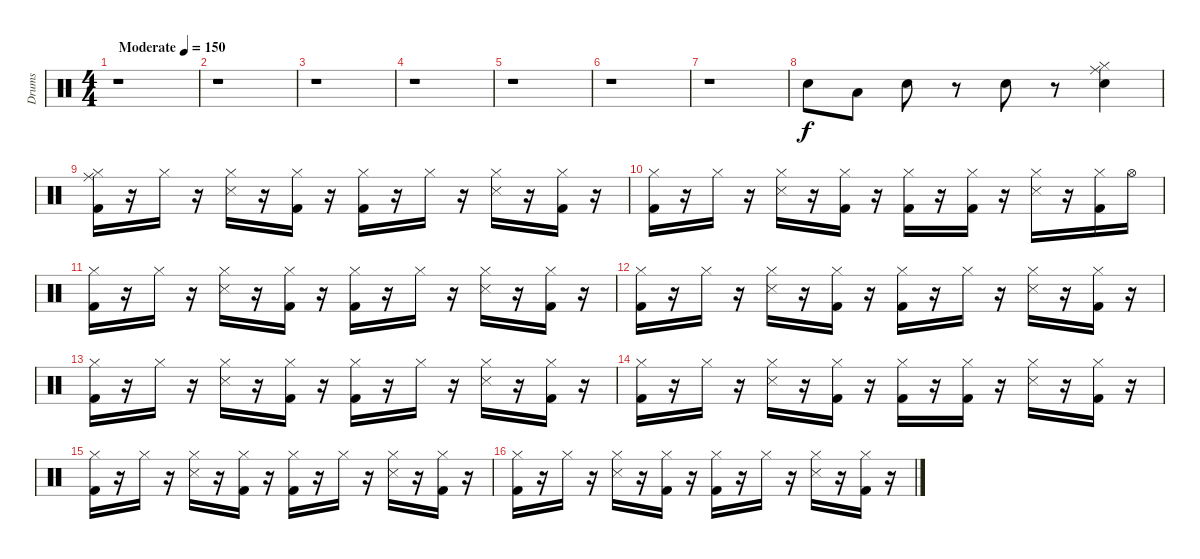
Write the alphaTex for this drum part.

\track ("Drums" "Drums") {instrument percussion}
\staff {score}
\articulation defaults
\ts (4 4)
\tempo (150 "Moderate")
\clef neutral
\ks c
r.1{dy f} |
r.1 |
r.1 |
r.1 |
r.1 |
r.1 |
r.1 |
"Snare (hit) 2".8 "Low Floor Tom (hit)".8 "Snare (hit) 2".8 r.8 "Snare (hit) 2".8 r.8 ("Electric Snare (hit)" "Hi-Hat (closed)" "Ride (middle)").4 |
("Ride (middle)" "Kick (hit) 2" "Hi-Hat (closed)").16 r.16 "Hi-Hat (closed)".16 r.16 ("Hi-Hat (closed)" "Snare (side stick) 3").16 r.16 ("Kick (hit) 2" "Hi-Hat (closed)").16 r.16 ("Kick (hit) 2" "Hi-Hat (closed)").16 r.16 "Hi-Hat (closed)".16 r.16 ("Hi-Hat (closed)" "Snare (side stick) 3").16 r.16 ("Kick (hit) 2" "Hi-Hat (closed)").16 r.16 |
("Kick (hit) 2" "Hi-Hat (closed)").16 r.16 "Hi-Hat (closed)".16 r.16 ("Hi-Hat (closed)" "Snare (side stick) 3").16 r.16 ("Kick (hit) 2" "Hi-Hat (closed)").16 r.16 ("Kick (hit) 2" "Hi-Hat (closed)").16 r.16 ("Kick (hit) 2" "Hi-Hat (closed)").16 r.16 ("Hi-Hat (closed)" "Snare (side stick) 3").16 r.16 ("Kick (hit) 2" "Hi-Hat (closed)").16 "Hi-Hat (open)".16 |
("Kick (hit) 2" "Hi-Hat (closed)").16 r.16 "Hi-Hat (closed)".16 r.16 ("Hi-Hat (closed)" "Snare (side stick) 3").16 r.16 ("Kick (hit) 2" "Hi-Hat (closed)").16 r.16 ("Kick (hit) 2" "Hi-Hat (closed)").16 r.16 "Hi-Hat (closed)".16 r.16 ("Hi-Hat (closed)" "Snare (side stick) 3").16 r.16 ("Kick (hit) 2" "Hi-Hat (closed)").16 r.16 |
("Kick (hit) 2" "Hi-Hat (closed)").16 r.16 "Hi-Hat (closed)".16 r.16 ("Hi-Hat (closed)" "Snare (side stick) 3").16 r.16 ("Kick (hit) 2" "Hi-Hat (closed)").16 r.16 ("Kick (hit) 2" "Hi-Hat (closed)").16 r.16 "Hi-Hat (closed)".16 r.16 ("Hi-Hat (closed)" "Snare (side stick) 3").16 r.16 ("Kick (hit) 2" "Hi-Hat (closed)").16 r.16 |
("Kick (hit) 2" "Hi-Hat (closed)").16 r.16 "Hi-Hat (closed)".16 r.16 ("Hi-Hat (closed)" "Snare (side stick) 3").16 r.16 ("Kick (hit) 2" "Hi-Hat (closed)").16 r.16 ("Kick (hit) 2" "Hi-Hat (closed)").16 r.16 "Hi-Hat (closed)".16 r.16 ("Hi-Hat (closed)" "Snare (side stick) 3").16 r.16 ("Kick (hit) 2" "Hi-Hat (closed)").16 r.16 |
("Kick (hit) 2" "Hi-Hat (closed)").16 r.16 "Hi-Hat (closed)".16 r.16 ("Hi-Hat (closed)" "Snare (side stick) 3").16 r.16 ("Kick (hit) 2" "Hi-Hat (closed)").16 r.16 ("Kick (hit) 2" "Hi-Hat (closed)").16 r.16 ("Kick (hit) 2" "Hi-Hat (closed)").16 r.16 ("Hi-Hat (closed)" "Snare (side stick) 3").16 r.16 ("Kick (hit) 2" "Hi-Hat (closed)").16 r.16 |
("Kick (hit) 2" "Hi-Hat (closed)").16 r.16 "Hi-Hat (closed)".16 r.16 ("Hi-Hat (closed)" "Snare (side stick) 3").16 r.16 ("Kick (hit) 2" "Hi-Hat (closed)").16 r.16 ("Kick (hit) 2" "Hi-Hat (closed)").16 r.16 "Hi-Hat (closed)".16 r.16 ("Hi-Hat (closed)" "Snare (side stick) 3").16 r.16 ("Kick (hit) 2" "Hi-Hat (closed)").16 r.16 |
("Kick (hit) 2" "Hi-Hat (closed)").16 r.16 "Hi-Hat (closed)".16 r.16 ("Hi-Hat (closed)" "Snare (side stick) 3").16 r.16 ("Kick (hit) 2" "Hi-Hat (closed)").16 r.16 ("Kick (hit) 2" "Hi-Hat (closed)").16 r.16 "Hi-Hat (closed)".16 r.16 ("Hi-Hat (closed)" "Snare (side stick) 3").16 r.16 ("Kick (hit) 2" "Hi-Hat (closed)").16 r.16
